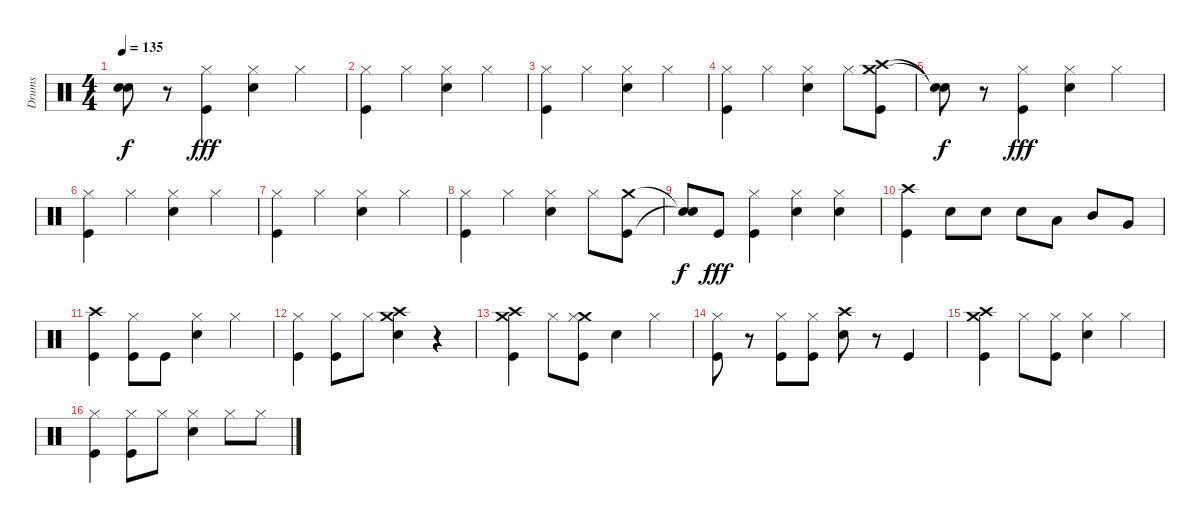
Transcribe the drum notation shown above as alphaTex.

\track ("Drums" "Drums") {instrument percussion}
\staff {score}
\articulation defaults
\ts (4 4)
\tempo 135
\clef neutral
\ks c
("Snare (hit)"{t} "Snare (hit)"{t}).8{dy f} r.8 ("Kick (hit)" "Hi-Hat (closed)").4{dy fff} ("Snare (hit) 2" "Hi-Hat (closed)").4 "Hi-Hat (closed)".4 |
("Kick (hit)" "Hi-Hat (closed)").4 "Hi-Hat (closed)".4 ("Snare (hit) 2" "Hi-Hat (closed)").4 "Hi-Hat (closed)".4 |
("Kick (hit)" "Hi-Hat (closed)").4 "Hi-Hat (closed)".4 ("Snare (hit) 2" "Hi-Hat (closed)").4 "Hi-Hat (closed)".4 |
("Kick (hit)" "Hi-Hat (closed)").4 "Hi-Hat (closed)".4 ("Snare (hit) 2" "Hi-Hat (closed)").4 "Hi-Hat (closed)".8 ("Crash medium (hit)" "Crash high (hit)" "Kick (hit)").8 |
("Snare (hit)"{t} "Snare (hit)"{t}).8{dy f} r.8 ("Kick (hit)" "Hi-Hat (closed)").4{dy fff} ("Snare (hit) 2" "Hi-Hat (closed)").4 "Hi-Hat (closed)".4 |
("Kick (hit)" "Hi-Hat (closed)").4 "Hi-Hat (closed)".4 ("Snare (hit) 2" "Hi-Hat (closed)").4 "Hi-Hat (closed)".4 |
("Kick (hit)" "Hi-Hat (closed)").4 "Hi-Hat (closed)".4 ("Snare (hit) 2" "Hi-Hat (closed)").4 "Hi-Hat (closed)".4 |
("Kick (hit)" "Hi-Hat (closed)").4 "Hi-Hat (closed)".4 ("Snare (hit) 2" "Hi-Hat (closed)").4 "Hi-Hat (closed)".8 ("Kick (hit)" "Crash medium (hit)").8 |
("Snare (hit)"{t} "Snare (hit)"{t}).8{dy f} "Kick (hit)".8{dy fff} ("Kick (hit)" "Hi-Hat (closed)").4 ("Snare (hit) 2" "Hi-Hat (closed)").4 ("Snare (hit) 2" "Hi-Hat (closed)").4 |
("Crash high (hit)" "Kick (hit)").4 "Snare (hit) 2".8 "Snare (hit) 2".8 "Snare (hit) 2".8 "Low Tom (hit)".8 "Mid Tom (hit)".8 "Very Low Tom (hit)".8 |
("Kick (hit)" "Crash high (hit)").4 ("Hi-Hat (closed)" "Kick (hit)").8 "Kick (hit)".8 ("Hi-Hat (closed)" "Snare (hit) 2").4 "Hi-Hat (closed)".4 |
("Hi-Hat (closed)" "Kick (hit)").4 ("Hi-Hat (closed)" "Kick (hit)").8 "Hi-Hat (closed)".8 ("Crash medium (hit)" "Crash high (hit)" "Snare (hit) 2").4 r.4 |
("Crash medium (hit)" "Crash high (hit)" "Kick (hit)").4 "Hi-Hat (closed)".8 ("Crash medium (hit)" "Kick (hit)" "Hi-Hat (closed)").8 "Snare (hit) 2".4 "Hi-Hat (closed)".4 |
("Hi-Hat (closed)" "Kick (hit)").8 r.8 ("Kick (hit)" "Hi-Hat (closed)").8 ("Hi-Hat (closed)" "Kick (hit)").8 ("Crash high (hit)" "Snare (hit) 2").8 r.8 "Kick (hit)".4 |
("Crash medium (hit)" "Kick (hit)" "Crash high (hit)").4 "Hi-Hat (closed)".8 ("Kick (hit)" "Hi-Hat (closed)").8 ("Hi-Hat (closed)" "Snare (hit) 2").4 "Hi-Hat (closed)".4 |
("Hi-Hat (closed)" "Kick (hit)").4 ("Hi-Hat (closed)" "Kick (hit)").8 "Hi-Hat (closed)".8 ("Hi-Hat (closed)" "Snare (hit) 2").4 "Hi-Hat (closed)".8 "Hi-Hat (closed)".8
